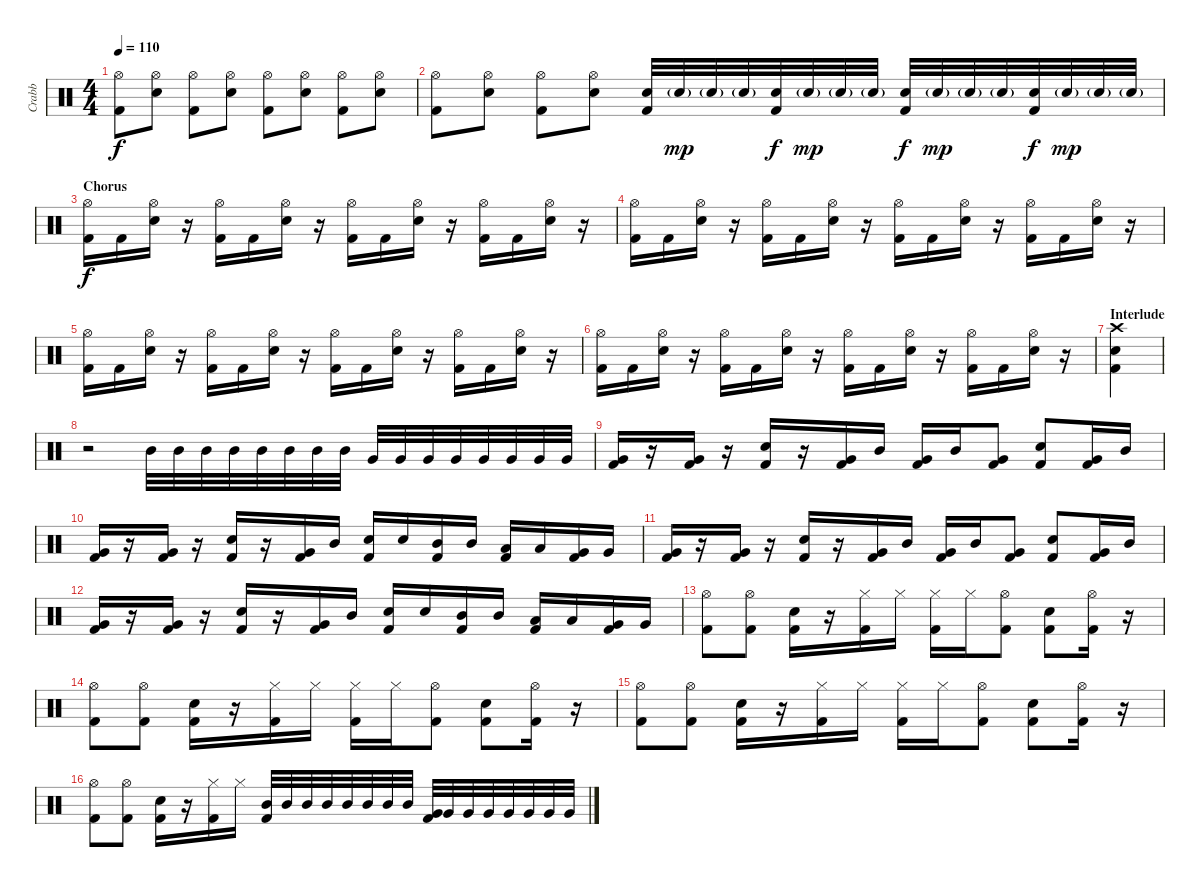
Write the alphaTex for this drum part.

\track ("Crabb" "Crabb") {instrument percussion}
\staff {score}
\articulation defaults
\ts (4 4)
\tempo 110
\clef neutral
\ks c
("Hi-Hat (open)" "Kick (hit) 2").8{dy f} ("Hi-Hat (open)" "Electric Snare (hit)").8 ("Hi-Hat (open)" "Kick (hit) 2").8 ("Hi-Hat (open)" "Electric Snare (hit)").8 ("Hi-Hat (open)" "Kick (hit) 2").8 ("Hi-Hat (open)" "Electric Snare (hit)").8 ("Hi-Hat (open)" "Kick (hit) 2").8 ("Hi-Hat (open)" "Electric Snare (hit)").8 |
("Hi-Hat (open)" "Kick (hit) 2").8 ("Hi-Hat (open)" "Electric Snare (hit)").8 ("Hi-Hat (open)" "Kick (hit) 2").8 ("Hi-Hat (open)" "Electric Snare (hit)").8 ("Electric Snare (hit)" "Kick (hit) 2").32 "Electric Snare (hit)"{g}.32{dy mp} "Electric Snare (hit)"{g}.32 "Electric Snare (hit)"{g}.32 ("Electric Snare (hit)" "Kick (hit) 2").32{dy f} "Electric Snare (hit)"{g}.32{dy mp} "Electric Snare (hit)"{g}.32 "Electric Snare (hit)"{g}.32 ("Electric Snare (hit)" "Kick (hit) 2").32{dy f} "Electric Snare (hit)"{g}.32{dy mp} "Electric Snare (hit)"{g}.32 "Electric Snare (hit)"{g}.32 ("Electric Snare (hit)" "Kick (hit) 2").32{dy f} "Electric Snare (hit)"{g}.32{dy mp} "Electric Snare (hit)"{g}.32 "Electric Snare (hit)"{g}.32 |
\section ("" "Chorus")
("Hi-Hat (open)" "Kick (hit) 2").16{dy f} "Kick (hit) 2".16 ("Hi-Hat (open)" "Electric Snare (hit)").16 r.16 ("Hi-Hat (open)" "Kick (hit) 2").16 "Kick (hit) 2".16 ("Hi-Hat (open)" "Electric Snare (hit)").16 r.16 ("Hi-Hat (open)" "Kick (hit) 2").16 "Kick (hit) 2".16 ("Hi-Hat (open)" "Electric Snare (hit)").16 r.16 ("Hi-Hat (open)" "Kick (hit) 2").16 "Kick (hit) 2".16 ("Hi-Hat (open)" "Electric Snare (hit)").16 r.16 |
("Hi-Hat (open)" "Kick (hit) 2").16 "Kick (hit) 2".16 ("Hi-Hat (open)" "Electric Snare (hit)").16 r.16 ("Hi-Hat (open)" "Kick (hit) 2").16 "Kick (hit) 2".16 ("Hi-Hat (open)" "Electric Snare (hit)").16 r.16 ("Hi-Hat (open)" "Kick (hit) 2").16 "Kick (hit) 2".16 ("Hi-Hat (open)" "Electric Snare (hit)").16 r.16 ("Hi-Hat (open)" "Kick (hit) 2").16 "Kick (hit) 2".16 ("Hi-Hat (open)" "Electric Snare (hit)").16 r.16 |
("Hi-Hat (open)" "Kick (hit) 2").16 "Kick (hit) 2".16 ("Hi-Hat (open)" "Electric Snare (hit)").16 r.16 ("Hi-Hat (open)" "Kick (hit) 2").16 "Kick (hit) 2".16 ("Hi-Hat (open)" "Electric Snare (hit)").16 r.16 ("Hi-Hat (open)" "Kick (hit) 2").16 "Kick (hit) 2".16 ("Hi-Hat (open)" "Electric Snare (hit)").16 r.16 ("Hi-Hat (open)" "Kick (hit) 2").16 "Kick (hit) 2".16 ("Hi-Hat (open)" "Electric Snare (hit)").16 r.16 |
("Hi-Hat (open)" "Kick (hit) 2").16 "Kick (hit) 2".16 ("Hi-Hat (open)" "Electric Snare (hit)").16 r.16 ("Hi-Hat (open)" "Kick (hit) 2").16 "Kick (hit) 2".16 ("Hi-Hat (open)" "Electric Snare (hit)").16 r.16 ("Hi-Hat (open)" "Kick (hit) 2").16 "Kick (hit) 2".16 ("Hi-Hat (open)" "Electric Snare (hit)").16 r.16 ("Hi-Hat (open)" "Kick (hit) 2").16 "Kick (hit) 2".16 ("Hi-Hat (open)" "Electric Snare (hit)").16 r.16 |
\section ("" "Interlude")
("Crash high (hit)" "Kick (hit) 2" "Electric Snare (hit)").4 |
r.2 "Mid Tom (hit)".32 "Mid Tom (hit)".32 "Mid Tom (hit)".32 "Mid Tom (hit)".32 "Mid Tom (hit)".32 "Mid Tom (hit)".32 "Mid Tom (hit)".32 "Mid Tom (hit)".32 "Very Low Tom (hit)".32 "Very Low Tom (hit)".32 "Very Low Tom (hit)".32 "Very Low Tom (hit)".32 "Very Low Tom (hit)".32 "Very Low Tom (hit)".32 "Very Low Tom (hit)".32 "Very Low Tom (hit)".32 |
("Very Low Tom (hit)" "Kick (hit) 2").16 r.16 ("Very Low Tom (hit)" "Kick (hit) 2").16 r.16 ("Electric Snare (hit)" "Kick (hit) 2").16 r.16 ("Very Low Tom (hit)" "Kick (hit) 2").16 "Mid Tom (hit)".16 ("Very Low Tom (hit)" "Kick (hit) 2").16 "Mid Tom (hit)".16 ("Very Low Tom (hit)" "Kick (hit) 2").8 ("Electric Snare (hit)" "Kick (hit) 2").8 ("Very Low Tom (hit)" "Kick (hit) 2").16 "Mid Tom (hit)".16 |
("Very Low Tom (hit)" "Kick (hit) 2").16 r.16 ("Very Low Tom (hit)" "Kick (hit) 2").16 r.16 ("Electric Snare (hit)" "Kick (hit) 2").16 r.16 ("Very Low Tom (hit)" "Kick (hit) 2").16 "Mid Tom (hit)".16 ("Electric Snare (hit)" "Kick (hit) 2").16 "Electric Snare (hit)".16 ("Mid Tom (hit)" "Kick (hit) 2").16 "Mid Tom (hit)".16 ("Low Tom (hit)" "Kick (hit) 2").16 "Low Tom (hit)".16 ("Very Low Tom (hit)" "Kick (hit) 2").16 "Very Low Tom (hit)".16 |
("Very Low Tom (hit)" "Kick (hit) 2").16 r.16 ("Very Low Tom (hit)" "Kick (hit) 2").16 r.16 ("Electric Snare (hit)" "Kick (hit) 2").16 r.16 ("Very Low Tom (hit)" "Kick (hit) 2").16 "Mid Tom (hit)".16 ("Very Low Tom (hit)" "Kick (hit) 2").16 "Mid Tom (hit)".16 ("Very Low Tom (hit)" "Kick (hit) 2").8 ("Electric Snare (hit)" "Kick (hit) 2").8 ("Very Low Tom (hit)" "Kick (hit) 2").16 "Mid Tom (hit)".16 |
("Very Low Tom (hit)" "Kick (hit) 2").16 r.16 ("Very Low Tom (hit)" "Kick (hit) 2").16 r.16 ("Electric Snare (hit)" "Kick (hit) 2").16 r.16 ("Very Low Tom (hit)" "Kick (hit) 2").16 "Mid Tom (hit)".16 ("Electric Snare (hit)" "Kick (hit) 2").16 "Electric Snare (hit)".16 ("Mid Tom (hit)" "Kick (hit) 2").16 "Mid Tom (hit)".16 ("Low Tom (hit)" "Kick (hit) 2").16 "Low Tom (hit)".16 ("Very Low Tom (hit)" "Kick (hit) 2").16 "Very Low Tom (hit)".16 |
("Hi-Hat (open)" "Kick (hit) 2").8 ("Hi-Hat (open)" "Kick (hit) 2").8 ("Electric Snare (hit)" "Kick (hit) 2").16 r.16 ("Hi-Hat (closed)" "Kick (hit) 2").16 "Hi-Hat (closed)".16 ("Hi-Hat (closed)" "Kick (hit) 2").16 "Hi-Hat (closed)".16 ("Hi-Hat (open)" "Kick (hit) 2").8 ("Electric Snare (hit)" "Kick (hit) 2").8 ("Hi-Hat (open)" "Kick (hit) 2").16 r.16 |
("Hi-Hat (open)" "Kick (hit) 2").8 ("Hi-Hat (open)" "Kick (hit) 2").8 ("Electric Snare (hit)" "Kick (hit) 2").16 r.16 ("Hi-Hat (closed)" "Kick (hit) 2").16 "Hi-Hat (closed)".16 ("Hi-Hat (closed)" "Kick (hit) 2").16 "Hi-Hat (closed)".16 ("Hi-Hat (open)" "Kick (hit) 2").8 ("Electric Snare (hit)" "Kick (hit) 2").8 ("Hi-Hat (open)" "Kick (hit) 2").16 r.16 |
("Hi-Hat (open)" "Kick (hit) 2").8 ("Hi-Hat (open)" "Kick (hit) 2").8 ("Electric Snare (hit)" "Kick (hit) 2").16 r.16 ("Hi-Hat (closed)" "Kick (hit) 2").16 "Hi-Hat (closed)".16 ("Hi-Hat (closed)" "Kick (hit) 2").16 "Hi-Hat (closed)".16 ("Hi-Hat (open)" "Kick (hit) 2").8 ("Electric Snare (hit)" "Kick (hit) 2").8 ("Hi-Hat (open)" "Kick (hit) 2").16 r.16 |
("Hi-Hat (open)" "Kick (hit) 2").8 ("Hi-Hat (open)" "Kick (hit) 2").8 ("Electric Snare (hit)" "Kick (hit) 2").16 r.16 ("Hi-Hat (closed)" "Kick (hit) 2").16 "Hi-Hat (closed)".16 ("Mid Tom (hit)" "Kick (hit) 2").32 "Mid Tom (hit)".32 "Mid Tom (hit)".32 "Mid Tom (hit)".32 "Mid Tom (hit)".32 "Mid Tom (hit)".32 "Mid Tom (hit)".32 "Mid Tom (hit)".32 ("Very Low Tom (hit)" "Kick (hit) 2").32 "Very Low Tom (hit)".32 "Very Low Tom (hit)".32 "Very Low Tom (hit)".32 "Very Low Tom (hit)".32 "Very Low Tom (hit)".32 "Very Low Tom (hit)".32 "Very Low Tom (hit)".32
